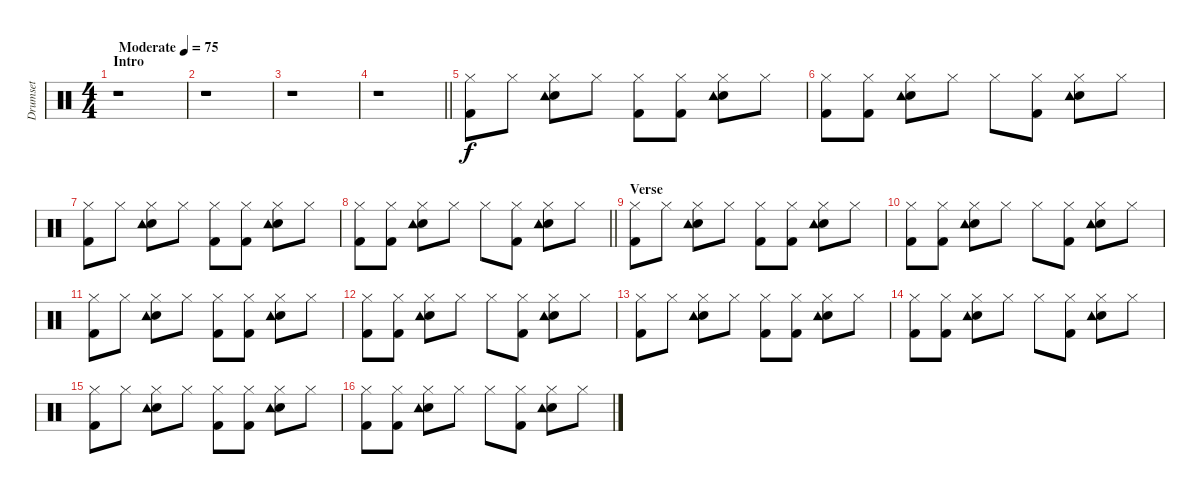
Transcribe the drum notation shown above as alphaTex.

\track ("Drumset" "Drumset") {instrument percussion}
\staff {score}
\articulation defaults
\ts (4 4)
\section ("" "Intro")
\tempo (75 "Moderate")
\clef neutral
\ks c
r.1{dy f} |
r.1 |
r.1 |
\barLineRight lightlight
r.1 |
("Hi-Hat (closed)" "Kick (hit) 2").8 "Hi-Hat (closed)".8 ("Hi-Hat (closed)" "Electric Snare (hit)" "Tambourine (hit)").8 "Hi-Hat (closed)".8 ("Hi-Hat (closed)" "Kick (hit) 2").8 ("Hi-Hat (closed)" "Kick (hit) 2").8 ("Hi-Hat (closed)" "Electric Snare (hit)" "Tambourine (hit)").8 "Hi-Hat (closed)".8 |
("Hi-Hat (closed)" "Kick (hit) 2").8 ("Hi-Hat (closed)" "Kick (hit) 2").8 ("Hi-Hat (closed)" "Electric Snare (hit)" "Tambourine (hit)").8 "Hi-Hat (closed)".8 "Hi-Hat (closed)".8 ("Hi-Hat (closed)" "Kick (hit) 2").8 ("Hi-Hat (closed)" "Electric Snare (hit)" "Tambourine (hit)").8 "Hi-Hat (closed)".8 |
("Hi-Hat (closed)" "Kick (hit) 2").8 "Hi-Hat (closed)".8 ("Hi-Hat (closed)" "Electric Snare (hit)" "Tambourine (hit)").8 "Hi-Hat (closed)".8 ("Hi-Hat (closed)" "Kick (hit) 2").8 ("Hi-Hat (closed)" "Kick (hit) 2").8 ("Hi-Hat (closed)" "Electric Snare (hit)" "Tambourine (hit)").8 "Hi-Hat (closed)".8 |
\barLineRight lightlight
("Hi-Hat (closed)" "Kick (hit) 2").8 ("Hi-Hat (closed)" "Kick (hit) 2").8 ("Hi-Hat (closed)" "Electric Snare (hit)" "Tambourine (hit)").8 "Hi-Hat (closed)".8 "Hi-Hat (closed)".8 ("Hi-Hat (closed)" "Kick (hit) 2").8 ("Hi-Hat (closed)" "Electric Snare (hit)" "Tambourine (hit)").8 "Hi-Hat (closed)".8 |
\section ("" "Verse")
("Hi-Hat (closed)" "Kick (hit) 2").8 "Hi-Hat (closed)".8 ("Hi-Hat (closed)" "Electric Snare (hit)" "Tambourine (hit)").8 "Hi-Hat (closed)".8 ("Hi-Hat (closed)" "Kick (hit) 2").8 ("Hi-Hat (closed)" "Kick (hit) 2").8 ("Hi-Hat (closed)" "Electric Snare (hit)" "Tambourine (hit)").8 "Hi-Hat (closed)".8 |
("Hi-Hat (closed)" "Kick (hit) 2").8 ("Hi-Hat (closed)" "Kick (hit) 2").8 ("Hi-Hat (closed)" "Electric Snare (hit)" "Tambourine (hit)").8 "Hi-Hat (closed)".8 "Hi-Hat (closed)".8 ("Hi-Hat (closed)" "Kick (hit) 2").8 ("Hi-Hat (closed)" "Electric Snare (hit)" "Tambourine (hit)").8 "Hi-Hat (closed)".8 |
("Hi-Hat (closed)" "Kick (hit) 2").8 "Hi-Hat (closed)".8 ("Hi-Hat (closed)" "Electric Snare (hit)" "Tambourine (hit)").8 "Hi-Hat (closed)".8 ("Hi-Hat (closed)" "Kick (hit) 2").8 ("Hi-Hat (closed)" "Kick (hit) 2").8 ("Hi-Hat (closed)" "Electric Snare (hit)" "Tambourine (hit)").8 "Hi-Hat (closed)".8 |
("Hi-Hat (closed)" "Kick (hit) 2").8 ("Hi-Hat (closed)" "Kick (hit) 2").8 ("Hi-Hat (closed)" "Electric Snare (hit)" "Tambourine (hit)").8 "Hi-Hat (closed)".8 "Hi-Hat (closed)".8 ("Hi-Hat (closed)" "Kick (hit) 2").8 ("Hi-Hat (closed)" "Electric Snare (hit)" "Tambourine (hit)").8 "Hi-Hat (closed)".8 |
("Hi-Hat (closed)" "Kick (hit) 2").8 "Hi-Hat (closed)".8 ("Hi-Hat (closed)" "Electric Snare (hit)" "Tambourine (hit)").8 "Hi-Hat (closed)".8 ("Hi-Hat (closed)" "Kick (hit) 2").8 ("Hi-Hat (closed)" "Kick (hit) 2").8 ("Hi-Hat (closed)" "Electric Snare (hit)" "Tambourine (hit)").8 "Hi-Hat (closed)".8 |
("Hi-Hat (closed)" "Kick (hit) 2").8 ("Hi-Hat (closed)" "Kick (hit) 2").8 ("Hi-Hat (closed)" "Electric Snare (hit)" "Tambourine (hit)").8 "Hi-Hat (closed)".8 "Hi-Hat (closed)".8 ("Hi-Hat (closed)" "Kick (hit) 2").8 ("Hi-Hat (closed)" "Electric Snare (hit)" "Tambourine (hit)").8 "Hi-Hat (closed)".8 |
("Hi-Hat (closed)" "Kick (hit) 2").8 "Hi-Hat (closed)".8 ("Hi-Hat (closed)" "Electric Snare (hit)" "Tambourine (hit)").8 "Hi-Hat (closed)".8 ("Hi-Hat (closed)" "Kick (hit) 2").8 ("Hi-Hat (closed)" "Kick (hit) 2").8 ("Hi-Hat (closed)" "Electric Snare (hit)" "Tambourine (hit)").8 "Hi-Hat (closed)".8 |
("Hi-Hat (closed)" "Kick (hit) 2").8 ("Hi-Hat (closed)" "Kick (hit) 2").8 ("Hi-Hat (closed)" "Electric Snare (hit)" "Tambourine (hit)").8 "Hi-Hat (closed)".8 "Hi-Hat (closed)".8 ("Hi-Hat (closed)" "Kick (hit) 2").8 ("Hi-Hat (closed)" "Electric Snare (hit)" "Tambourine (hit)").8 "Hi-Hat (closed)".8
